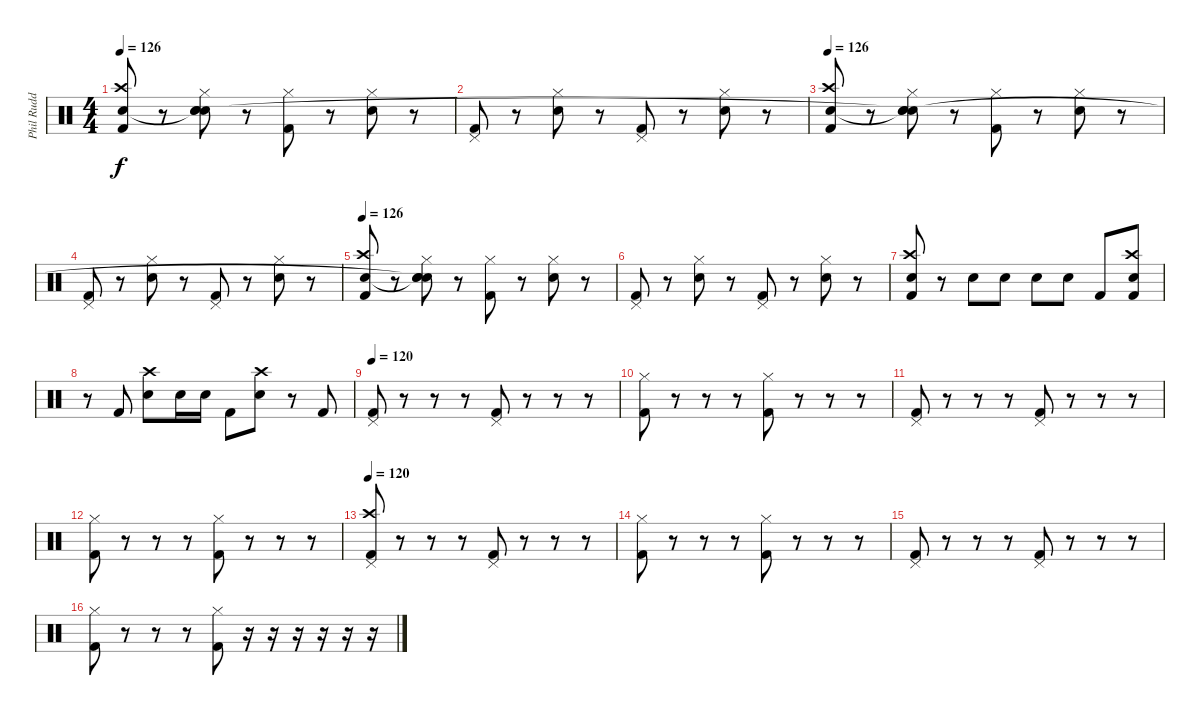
\track ("Phil Rudd" "Phil Rudd") {instrument percussion}
\staff {score}
\articulation defaults
\ts (4 4)
\tempo 126
\clef neutral
\ks c
("Kick (hit) 2" "Crash high (hit)" "Snare (hit) 2").8{dy f} r.8 ("Hi-Hat (closed)" "Snare (hit) 2" "Snare (hit)"{t} "Snare (hit)").8 r.8 ("Kick (hit) 2" "Hi-Hat (closed)").8 r.8 ("Hi-Hat (closed)" "Snare (hit) 2").8 r.8 |
("Kick (hit) 2" "Pedal Hi-Hat (hit)").8 r.8 ("Snare (hit) 2" "Hi-Hat (closed)").8 r.8 ("Kick (hit) 2" "Pedal Hi-Hat (hit)").8 r.8 ("Snare (hit) 2" "Hi-Hat (closed)").8 r.8 |
\tempo 126
("Kick (hit) 2" "Crash high (hit)" "Snare (hit) 2").8 r.8 ("Hi-Hat (closed)" "Snare (hit) 2" "Snare (hit)"{t} "Snare (hit)"{t}).8 r.8 ("Kick (hit) 2" "Hi-Hat (closed)").8 r.8 ("Hi-Hat (closed)" "Snare (hit) 2").8 r.8 |
("Kick (hit) 2" "Pedal Hi-Hat (hit)").8 r.8 ("Snare (hit) 2" "Hi-Hat (closed)").8 r.8 ("Kick (hit) 2" "Pedal Hi-Hat (hit)").8 r.8 ("Snare (hit) 2" "Hi-Hat (closed)").8 r.8 |
\tempo 126
("Kick (hit) 2" "Crash high (hit)" "Snare (hit) 2").8 r.8 ("Hi-Hat (closed)" "Snare (hit) 2" "Snare (hit)"{t} "Snare (hit)"{t}).8 r.8 ("Kick (hit) 2" "Hi-Hat (closed)").8 r.8 ("Hi-Hat (closed)" "Snare (hit) 2").8 r.8 |
("Kick (hit) 2" "Pedal Hi-Hat (hit)").8 r.8 ("Snare (hit) 2" "Hi-Hat (closed)").8 r.8 ("Kick (hit) 2" "Pedal Hi-Hat (hit)").8 r.8 ("Snare (hit) 2" "Hi-Hat (closed)").8 r.8 |
("Snare (hit) 2" "Kick (hit) 2" "Crash high (hit)").8 r.8 "Snare (hit) 2".8 "Snare (hit) 2".8 "Snare (hit) 2".8 "Snare (hit) 2".8 "Kick (hit) 2".8 ("Crash high (hit)" "Snare (hit) 2" "Kick (hit) 2").8 |
r.8 "Kick (hit) 2".8 ("Crash high (hit)" "Snare (hit) 2").8 "Snare (hit) 2".16 "Snare (hit) 2".16 "Kick (hit) 2".8 ("Crash high (hit)" "Snare (hit) 2").8 r.8 "Kick (hit) 2".8 |
\tempo 120
("Pedal Hi-Hat (hit)" "Kick (hit) 2").8 r.8 r.8 r.8 ("Pedal Hi-Hat (hit)" "Kick (hit) 2").8 r.8 r.8 r.8 |
("Hi-Hat (closed)" "Kick (hit) 2").8 r.8 r.8 r.8 ("Hi-Hat (closed)" "Kick (hit) 2").8 r.8 r.8 r.8 |
("Pedal Hi-Hat (hit)" "Kick (hit) 2").8 r.8 r.8 r.8 ("Pedal Hi-Hat (hit)" "Kick (hit) 2").8 r.8 r.8 r.8 |
("Hi-Hat (closed)" "Kick (hit) 2").8 r.8 r.8 r.8 ("Hi-Hat (closed)" "Kick (hit) 2").8 r.8 r.8 r.8 |
\tempo 120
("Pedal Hi-Hat (hit)" "Kick (hit) 2" "Crash high (hit)").8 r.8 r.8 r.8 ("Pedal Hi-Hat (hit)" "Kick (hit) 2").8 r.8 r.8 r.8 |
("Hi-Hat (closed)" "Kick (hit) 2").8 r.8 r.8 r.8 ("Hi-Hat (closed)" "Kick (hit) 2").8 r.8 r.8 r.8 |
("Pedal Hi-Hat (hit)" "Kick (hit) 2").8 r.8 r.8 r.8 ("Pedal Hi-Hat (hit)" "Kick (hit) 2").8 r.8 r.8 r.8 |
("Hi-Hat (closed)" "Kick (hit) 2").8 r.8 r.8 r.8 ("Hi-Hat (closed)" "Kick (hit) 2").8 r.16 r.16 r.16 r.16 r.16 r.16
